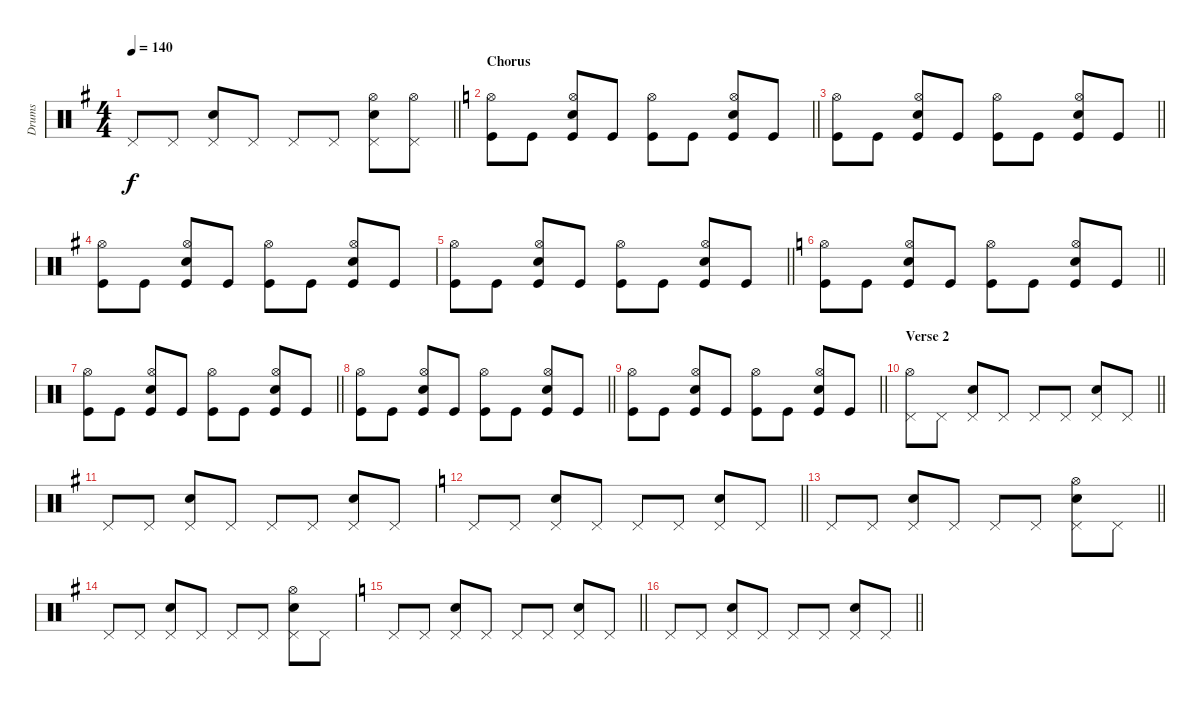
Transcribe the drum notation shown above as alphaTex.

\track ("Drums" "Drums") {instrument percussion}
\staff {score}
\articulation defaults
\ts (4 4)
\tempo 140
\clef neutral
\barLineRight lightlight
\ks g "Pedal Hi-Hat (hit)".8{dy f} "Pedal Hi-Hat (hit)".8
("Pedal Hi-Hat (hit)" "Snare (hit) 2").8 "Pedal Hi-Hat (hit)".8 "Pedal Hi-Hat (hit)".8 "Pedal Hi-Hat (hit)".8 ("Pedal Hi-Hat (hit)" "Hi-Hat (open)" "Snare (hit) 2").8 ("Pedal Hi-Hat (hit)" "Hi-Hat (open)").8 |
\section ("" "Chorus")
\barLineRight lightlight
\ks c
("Hi-Hat (open)" "Kick (hit)").8 "Kick (hit)".8 ("Hi-Hat (open)" "Snare (hit) 2" "Kick (hit)").8 "Kick (hit)".8 ("Hi-Hat (open)" "Kick (hit)").8 "Kick (hit)".8 ("Hi-Hat (open)" "Snare (hit) 2" "Kick (hit)").8 "Kick (hit)".8 |
\barLineRight lightlight
("Hi-Hat (open)" "Kick (hit)").8 "Kick (hit)".8 ("Hi-Hat (open)" "Snare (hit) 2" "Kick (hit)").8 "Kick (hit)".8 ("Hi-Hat (open)" "Kick (hit)").8 "Kick (hit)".8 ("Hi-Hat (open)" "Snare (hit) 2" "Kick (hit)").8 "Kick (hit)".8 |
\ks g
("Hi-Hat (open)" "Kick (hit)").8 "Kick (hit)".8 ("Hi-Hat (open)" "Snare (hit) 2" "Kick (hit)").8 "Kick (hit)".8 ("Hi-Hat (open)" "Kick (hit)").8 "Kick (hit)".8 ("Hi-Hat (open)" "Snare (hit) 2" "Kick (hit)").8 "Kick (hit)".8 |
\barLineRight lightlight
("Hi-Hat (open)" "Kick (hit)").8 "Kick (hit)".8 ("Hi-Hat (open)" "Snare (hit) 2" "Kick (hit)").8 "Kick (hit)".8 ("Hi-Hat (open)" "Kick (hit)").8 "Kick (hit)".8 ("Hi-Hat (open)" "Snare (hit) 2" "Kick (hit)").8 "Kick (hit)".8 |
\barLineRight lightlight
\ks c
("Hi-Hat (open)" "Kick (hit)").8 "Kick (hit)".8 ("Hi-Hat (open)" "Snare (hit) 2" "Kick (hit)").8 "Kick (hit)".8 ("Hi-Hat (open)" "Kick (hit)").8 "Kick (hit)".8 ("Hi-Hat (open)" "Snare (hit) 2" "Kick (hit)").8 "Kick (hit)".8 |
\barLineRight lightlight
("Hi-Hat (open)" "Kick (hit)").8 "Kick (hit)".8 ("Hi-Hat (open)" "Snare (hit) 2" "Kick (hit)").8 "Kick (hit)".8 ("Hi-Hat (open)" "Kick (hit)").8 "Kick (hit)".8 ("Hi-Hat (open)" "Snare (hit) 2" "Kick (hit)").8 "Kick (hit)".8 |
\barLineRight lightlight
("Hi-Hat (open)" "Kick (hit)").8 "Kick (hit)".8 ("Hi-Hat (open)" "Snare (hit) 2" "Kick (hit)").8 "Kick (hit)".8 ("Hi-Hat (open)" "Kick (hit)").8 "Kick (hit)".8 ("Hi-Hat (open)" "Snare (hit) 2" "Kick (hit)").8 "Kick (hit)".8 |
\barLineRight lightlight
("Hi-Hat (open)" "Kick (hit)").8 "Kick (hit)".8 ("Hi-Hat (open)" "Snare (hit) 2" "Kick (hit)").8 "Kick (hit)".8 ("Hi-Hat (open)" "Kick (hit)").8 "Kick (hit)".8 ("Hi-Hat (open)" "Snare (hit) 2" "Kick (hit)").8 "Kick (hit)".8 |
\section ("" "Verse 2")
\barLineRight lightlight
("Pedal Hi-Hat (hit)" "Hi-Hat (open)").8 "Pedal Hi-Hat (hit)".8 ("Pedal Hi-Hat (hit)" "Snare (hit) 2").8 "Pedal Hi-Hat (hit)".8 "Pedal Hi-Hat (hit)".8 "Pedal Hi-Hat (hit)".8 ("Pedal Hi-Hat (hit)" "Snare (hit) 2").8 "Pedal Hi-Hat (hit)".8 |
\ks g "Pedal Hi-Hat (hit)".8 "Pedal Hi-Hat (hit)".8
("Pedal Hi-Hat (hit)" "Snare (hit) 2").8 "Pedal Hi-Hat (hit)".8 "Pedal Hi-Hat (hit)".8 "Pedal Hi-Hat (hit)".8 ("Pedal Hi-Hat (hit)" "Snare (hit) 2").8 "Pedal Hi-Hat (hit)".8 |
\barLineRight lightlight
\ks c "Pedal Hi-Hat (hit)".8 "Pedal Hi-Hat (hit)".8
("Pedal Hi-Hat (hit)" "Snare (hit) 2").8 "Pedal Hi-Hat (hit)".8 "Pedal Hi-Hat (hit)".8 "Pedal Hi-Hat (hit)".8 ("Pedal Hi-Hat (hit)" "Snare (hit) 2").8 "Pedal Hi-Hat (hit)".8 |
\barLineRight lightlight "Pedal Hi-Hat (hit)".8 "Pedal Hi-Hat (hit)".8
("Pedal Hi-Hat (hit)" "Snare (hit) 2").8 "Pedal Hi-Hat (hit)".8 "Pedal Hi-Hat (hit)".8 "Pedal Hi-Hat (hit)".8 ("Pedal Hi-Hat (hit)" "Hi-Hat (open)" "Snare (hit) 2").8 "Pedal Hi-Hat (hit)".8 |
\ks g "Pedal Hi-Hat (hit)".8 "Pedal Hi-Hat (hit)".8
("Pedal Hi-Hat (hit)" "Snare (hit) 2").8 "Pedal Hi-Hat (hit)".8 "Pedal Hi-Hat (hit)".8 "Pedal Hi-Hat (hit)".8 ("Pedal Hi-Hat (hit)" "Hi-Hat (open)" "Snare (hit) 2").8 "Pedal Hi-Hat (hit)".8 |
\barLineRight lightlight
\ks c "Pedal Hi-Hat (hit)".8 "Pedal Hi-Hat (hit)".8
("Pedal Hi-Hat (hit)" "Snare (hit) 2").8 "Pedal Hi-Hat (hit)".8 "Pedal Hi-Hat (hit)".8 "Pedal Hi-Hat (hit)".8 ("Pedal Hi-Hat (hit)" "Snare (hit) 2").8 "Pedal Hi-Hat (hit)".8 |
\barLineRight lightlight "Pedal Hi-Hat (hit)".8 "Pedal Hi-Hat (hit)".8
("Pedal Hi-Hat (hit)" "Snare (hit) 2").8 "Pedal Hi-Hat (hit)".8 "Pedal Hi-Hat (hit)".8 "Pedal Hi-Hat (hit)".8 ("Pedal Hi-Hat (hit)" "Snare (hit) 2").8 "Pedal Hi-Hat (hit)".8
